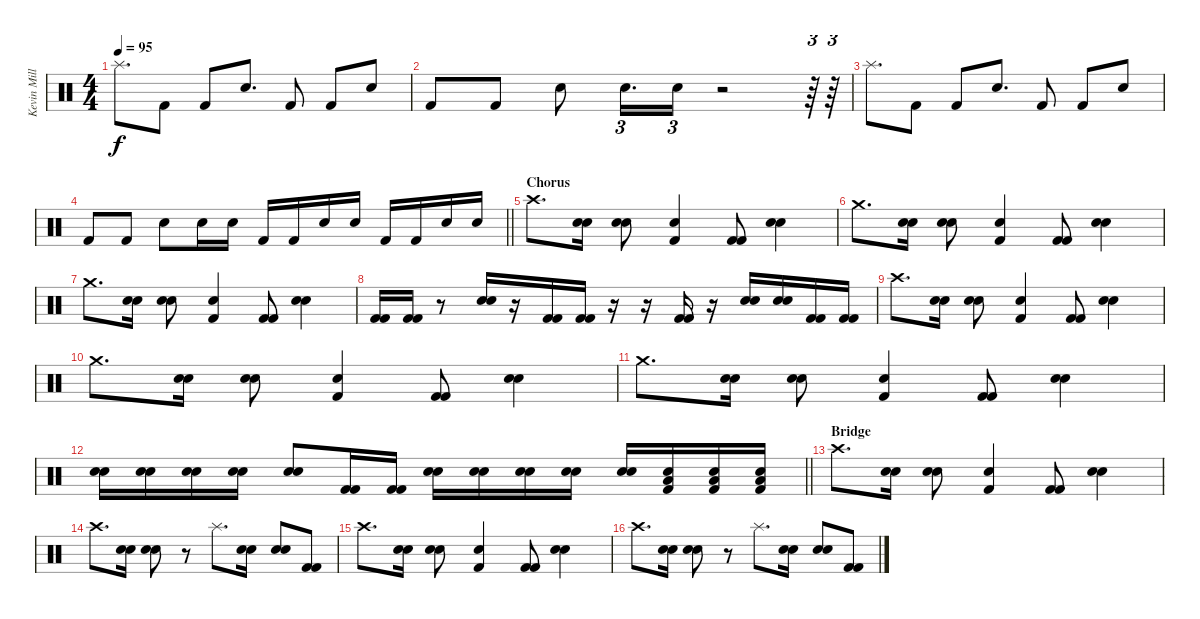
\track ("Kevin Miller (Drums)" "Kevin Mill") {instrument percussion}
\staff {score}
\articulation defaults
\ts (4 4)
\tempo 95
\clef neutral
\ks c "Splash (hit)".8{d dy f} "Kick (hit) 2".8 "Kick (hit) 2".8 "Electric Snare (hit)".8{d} "Kick (hit) 2".8 "Kick (hit) 2".8 "Electric Snare (hit)".8
|
"Kick (hit) 2".8 "Kick (hit) 2".8 "Electric Snare (hit)".8 "Electric Snare (hit)".16{d tu (3 2)} "Electric Snare (hit)".16{tu (3 2)} r.2 r.64{tu (3 2)} r.64{tu (3 2)} |
"Splash (hit)".8{d} "Kick (hit) 2".8 "Kick (hit) 2".8 "Electric Snare (hit)".8{d} "Kick (hit) 2".8 "Kick (hit) 2".8 "Electric Snare (hit)".8 |
\barLineRight lightlight "Kick (hit) 2".8 "Kick (hit) 2".8 "Electric Snare (hit)".8 "Electric Snare (hit)".16 "Electric Snare (hit)".16 "Kick (hit) 2".16 "Kick (hit) 2".16 "Electric Snare (hit)".16 "Electric Snare (hit)".16 "Kick (hit) 2".16 "Kick (hit) 2".16 "Electric Snare (hit)".16 "Electric Snare (hit)".16
|
\section ("" "Chorus")
"Crash high (hit)".8{d} ("Electric Snare (hit)" "Electric Snare (hit)").16 ("Electric Snare (hit)" "Electric Snare (hit)").8 ("Electric Snare (hit)" "Kick (hit) 2").4 ("Kick (hit) 2" "Kick (hit) 2").8 ("Electric Snare (hit)" "Electric Snare (hit)").4 |
"Crash medium (hit)".8{d} ("Electric Snare (hit)" "Electric Snare (hit)").16 ("Electric Snare (hit)" "Electric Snare (hit)").8 ("Electric Snare (hit)" "Kick (hit) 2").4 ("Kick (hit) 2" "Kick (hit) 2").8 ("Electric Snare (hit)" "Electric Snare (hit)").4 |
"Crash medium (hit)".8{d} ("Electric Snare (hit)" "Electric Snare (hit)").16 ("Electric Snare (hit)" "Electric Snare (hit)").8 ("Electric Snare (hit)" "Kick (hit) 2").4 ("Kick (hit) 2" "Kick (hit) 2").8 ("Electric Snare (hit)" "Electric Snare (hit)").4 |
("Kick (hit) 2" "Kick (hit) 2").16 ("Kick (hit) 2" "Kick (hit) 2").16 r.8 ("Electric Snare (hit)" "Electric Snare (hit)").16 r.16 ("Kick (hit) 2" "Kick (hit) 2").16 ("Kick (hit) 2" "Kick (hit) 2").16 r.16 r.16 ("Kick (hit) 2" "Kick (hit) 2").16 r.16 ("Electric Snare (hit)" "Electric Snare (hit)").16 ("Electric Snare (hit)" "Electric Snare (hit)").16 ("Kick (hit) 2" "Kick (hit) 2").16 ("Kick (hit) 2" "Kick (hit) 2").16 |
"Crash high (hit)".8{d} ("Electric Snare (hit)" "Electric Snare (hit)").16 ("Electric Snare (hit)" "Electric Snare (hit)").8 ("Electric Snare (hit)" "Kick (hit) 2").4 ("Kick (hit) 2" "Kick (hit) 2").8 ("Electric Snare (hit)" "Electric Snare (hit)").4 |
"Crash medium (hit)".8{d} ("Electric Snare (hit)" "Electric Snare (hit)").16 ("Electric Snare (hit)" "Electric Snare (hit)").8 ("Electric Snare (hit)" "Kick (hit) 2").4 ("Kick (hit) 2" "Kick (hit) 2").8 ("Electric Snare (hit)" "Electric Snare (hit)").4 |
"Crash medium (hit)".8{d} ("Electric Snare (hit)" "Electric Snare (hit)").16 ("Electric Snare (hit)" "Electric Snare (hit)").8 ("Electric Snare (hit)" "Kick (hit) 2").4 ("Kick (hit) 2" "Kick (hit) 2").8 ("Electric Snare (hit)" "Electric Snare (hit)").4 |
\barLineRight lightlight
("Electric Snare (hit)" "Electric Snare (hit)").16 ("Electric Snare (hit)" "Electric Snare (hit)").16 ("Electric Snare (hit)" "Electric Snare (hit)").16 ("Electric Snare (hit)" "Electric Snare (hit)").16 ("Electric Snare (hit)" "Electric Snare (hit)").8 ("Kick (hit) 2" "Kick (hit) 2").16 ("Kick (hit) 2" "Kick (hit) 2").16 ("Electric Snare (hit)" "Electric Snare (hit)").16 ("Electric Snare (hit)" "Electric Snare (hit)").16 ("Electric Snare (hit)" "Electric Snare (hit)").16 ("Electric Snare (hit)" "Electric Snare (hit)").16 ("Electric Snare (hit)" "Electric Snare (hit)").16 ("Low Tom (hit)" "Kick (hit) 2" "Electric Snare (hit)").16 ("Low Tom (hit)" "Kick (hit) 2" "Electric Snare (hit)").16 ("Low Tom (hit)" "Kick (hit) 2" "Electric Snare (hit)").16 |
\section ("" "Bridge")
"Crash high (hit)".8{d} ("Electric Snare (hit)" "Electric Snare (hit)").16 ("Electric Snare (hit)" "Electric Snare (hit)").8 ("Electric Snare (hit)" "Kick (hit) 2").4 ("Kick (hit) 2" "Kick (hit) 2").8 ("Electric Snare (hit)" "Electric Snare (hit)").4 |
"Crash high (hit)".8{d} ("Electric Snare (hit)" "Electric Snare (hit)").16 ("Electric Snare (hit)" "Electric Snare (hit)").8 r.8 "Splash (hit)".8{d} ("Electric Snare (hit)" "Electric Snare (hit)").16 ("Electric Snare (hit)" "Electric Snare (hit)").8 ("Kick (hit) 2" "Kick (hit) 2").8 |
"Crash high (hit)".8{d} ("Electric Snare (hit)" "Electric Snare (hit)").16 ("Electric Snare (hit)" "Electric Snare (hit)").8 ("Electric Snare (hit)" "Kick (hit) 2").4 ("Kick (hit) 2" "Kick (hit) 2").8 ("Electric Snare (hit)" "Electric Snare (hit)").4 |
"Crash high (hit)".8{d} ("Electric Snare (hit)" "Electric Snare (hit)").16 ("Electric Snare (hit)" "Electric Snare (hit)").8 r.8 "Splash (hit)".8{d} ("Electric Snare (hit)" "Electric Snare (hit)").16 ("Electric Snare (hit)" "Electric Snare (hit)").8 ("Kick (hit) 2" "Kick (hit) 2").8
